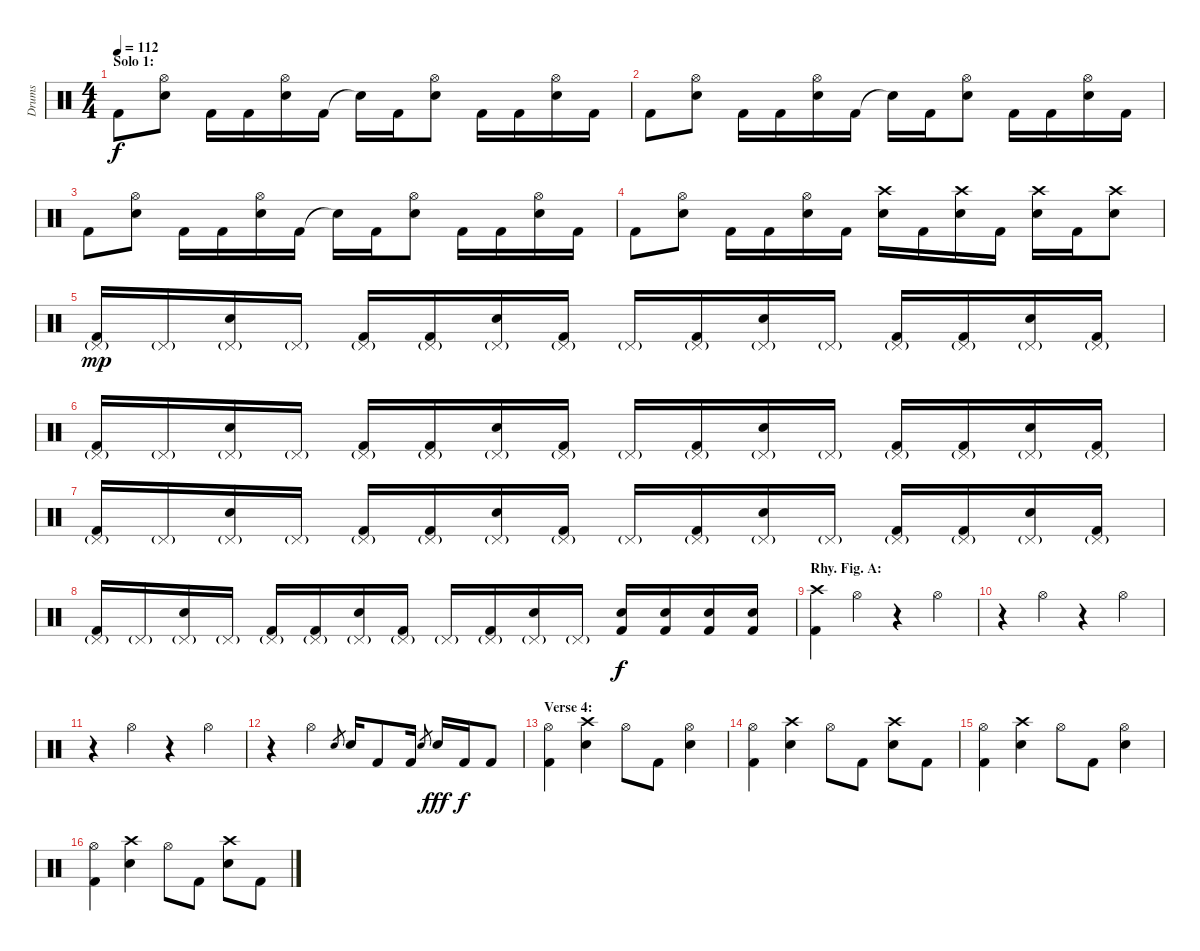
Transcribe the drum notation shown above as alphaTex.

\track ("Drums" "Drums") {instrument percussion}
\staff {score}
\articulation defaults
\ts (4 4)
\section ("" "Solo 1:")
\tempo 112
\clef neutral
\ks c "Kick (hit) 2".8{dy f}
("Hi-Hat (open)" "Electric Snare (hit)").8 "Kick (hit) 2".16 "Kick (hit) 2".16 ("Hi-Hat (open)" "Electric Snare (hit)").16 "Kick (hit) 2".16 "Snare (hit)"{t}.16 "Kick (hit) 2".16 ("Hi-Hat (open)" "Electric Snare (hit)").8 "Kick (hit) 2".16 "Kick (hit) 2".16 ("Hi-Hat (open)" "Electric Snare (hit)").16 "Kick (hit) 2".16 |
"Kick (hit) 2".8 ("Hi-Hat (open)" "Electric Snare (hit)").8 "Kick (hit) 2".16 "Kick (hit) 2".16 ("Hi-Hat (open)" "Electric Snare (hit)").16 "Kick (hit) 2".16 "Snare (hit)"{t}.16 "Kick (hit) 2".16 ("Hi-Hat (open)" "Electric Snare (hit)").8 "Kick (hit) 2".16 "Kick (hit) 2".16 ("Hi-Hat (open)" "Electric Snare (hit)").16 "Kick (hit) 2".16 |
"Kick (hit) 2".8 ("Hi-Hat (open)" "Electric Snare (hit)").8 "Kick (hit) 2".16 "Kick (hit) 2".16 ("Hi-Hat (open)" "Electric Snare (hit)").16 "Kick (hit) 2".16 "Snare (hit)"{t}.16 "Kick (hit) 2".16 ("Hi-Hat (open)" "Electric Snare (hit)").8 "Kick (hit) 2".16 "Kick (hit) 2".16 ("Hi-Hat (open)" "Electric Snare (hit)").16 "Kick (hit) 2".16 |
"Kick (hit) 2".8 ("Hi-Hat (open)" "Electric Snare (hit)").8 "Kick (hit) 2".16 "Kick (hit) 2".16 ("Hi-Hat (open)" "Electric Snare (hit)").16 "Kick (hit) 2".16 ("Crash high (hit)" "Electric Snare (hit)").16 "Kick (hit) 2".16 ("Crash high (hit)" "Electric Snare (hit)").16 "Kick (hit) 2".16 ("Crash high (hit)" "Electric Snare (hit)").16 "Kick (hit) 2".16 ("Crash high (hit)" "Electric Snare (hit)").8 |
("Pedal Hi-Hat (hit)"{g} "Kick (hit) 2").16{dy mp} "Pedal Hi-Hat (hit)"{g}.16 ("Pedal Hi-Hat (hit)"{g} "Electric Snare (hit)").16 "Pedal Hi-Hat (hit)"{g}.16 ("Pedal Hi-Hat (hit)"{g} "Kick (hit) 2").16 ("Pedal Hi-Hat (hit)"{g} "Kick (hit) 2").16 ("Pedal Hi-Hat (hit)"{g} "Electric Snare (hit)").16 ("Pedal Hi-Hat (hit)"{g} "Kick (hit) 2").16 "Pedal Hi-Hat (hit)"{g}.16 ("Pedal Hi-Hat (hit)"{g} "Kick (hit) 2").16 ("Pedal Hi-Hat (hit)"{g} "Electric Snare (hit)").16 "Pedal Hi-Hat (hit)"{g}.16 ("Pedal Hi-Hat (hit)"{g} "Kick (hit) 2").16 ("Pedal Hi-Hat (hit)"{g} "Kick (hit) 2").16 ("Pedal Hi-Hat (hit)"{g} "Electric Snare (hit)").16 ("Pedal Hi-Hat (hit)"{g} "Kick (hit) 2").16 |
("Pedal Hi-Hat (hit)"{g} "Kick (hit) 2").16 "Pedal Hi-Hat (hit)"{g}.16 ("Pedal Hi-Hat (hit)"{g} "Electric Snare (hit)").16 "Pedal Hi-Hat (hit)"{g}.16 ("Pedal Hi-Hat (hit)"{g} "Kick (hit) 2").16 ("Pedal Hi-Hat (hit)"{g} "Kick (hit) 2").16 ("Pedal Hi-Hat (hit)"{g} "Electric Snare (hit)").16 ("Pedal Hi-Hat (hit)"{g} "Kick (hit) 2").16 "Pedal Hi-Hat (hit)"{g}.16 ("Pedal Hi-Hat (hit)"{g} "Kick (hit) 2").16 ("Pedal Hi-Hat (hit)"{g} "Electric Snare (hit)").16 "Pedal Hi-Hat (hit)"{g}.16 ("Pedal Hi-Hat (hit)"{g} "Kick (hit) 2").16 ("Pedal Hi-Hat (hit)"{g} "Kick (hit) 2").16 ("Pedal Hi-Hat (hit)"{g} "Electric Snare (hit)").16 ("Pedal Hi-Hat (hit)"{g} "Kick (hit) 2").16 |
("Pedal Hi-Hat (hit)"{g} "Kick (hit) 2").16 "Pedal Hi-Hat (hit)"{g}.16 ("Pedal Hi-Hat (hit)"{g} "Electric Snare (hit)").16 "Pedal Hi-Hat (hit)"{g}.16 ("Pedal Hi-Hat (hit)"{g} "Kick (hit) 2").16 ("Pedal Hi-Hat (hit)"{g} "Kick (hit) 2").16 ("Pedal Hi-Hat (hit)"{g} "Electric Snare (hit)").16 ("Pedal Hi-Hat (hit)"{g} "Kick (hit) 2").16 "Pedal Hi-Hat (hit)"{g}.16 ("Pedal Hi-Hat (hit)"{g} "Kick (hit) 2").16 ("Pedal Hi-Hat (hit)"{g} "Electric Snare (hit)").16 "Pedal Hi-Hat (hit)"{g}.16 ("Pedal Hi-Hat (hit)"{g} "Kick (hit) 2").16 ("Pedal Hi-Hat (hit)"{g} "Kick (hit) 2").16 ("Pedal Hi-Hat (hit)"{g} "Electric Snare (hit)").16 ("Pedal Hi-Hat (hit)"{g} "Kick (hit) 2").16 |
("Pedal Hi-Hat (hit)"{g} "Kick (hit) 2").16 "Pedal Hi-Hat (hit)"{g}.16 ("Pedal Hi-Hat (hit)"{g} "Electric Snare (hit)").16 "Pedal Hi-Hat (hit)"{g}.16 ("Pedal Hi-Hat (hit)"{g} "Kick (hit) 2").16 ("Pedal Hi-Hat (hit)"{g} "Kick (hit) 2").16 ("Pedal Hi-Hat (hit)"{g} "Electric Snare (hit)").16 ("Pedal Hi-Hat (hit)"{g} "Kick (hit) 2").16 "Pedal Hi-Hat (hit)"{g}.16 ("Pedal Hi-Hat (hit)"{g} "Kick (hit) 2").16 ("Pedal Hi-Hat (hit)"{g} "Electric Snare (hit)").16 "Pedal Hi-Hat (hit)"{g}.16 ("Electric Snare (hit)" "Kick (hit) 2").16{dy f} ("Electric Snare (hit)" "Kick (hit) 2").16 ("Electric Snare (hit)" "Kick (hit) 2").16 ("Electric Snare (hit)" "Kick (hit) 2").16 |
\section ("" "Rhy. Fig. A:")
("Crash high (hit)" "Kick (hit) 2").4 "Hi-Hat (open)".4 r.4 "Hi-Hat (open)".4 |
r.4 "Hi-Hat (open)".4 r.4 "Hi-Hat (open)".4 |
r.4 "Hi-Hat (open)".4 r.4 "Hi-Hat (open)".4 |
r.4 "Hi-Hat (open)".4 "Electric Snare (hit)".8{gr} "Electric Snare (hit)".16 "Kick (hit) 2".8 "Kick (hit) 2".16 "Electric Snare (hit)".8{gr} "Electric Snare (hit)".16{dy fff} "Kick (hit) 2".16{dy f} "Kick (hit) 2".8 |
\section ("" "Verse 4:")
("Hi-Hat (open)" "Kick (hit) 2").4 ("Crash high (hit)" "Electric Snare (hit)").4 "Hi-Hat (open)".8 "Kick (hit) 2".8 ("Hi-Hat (open)" "Electric Snare (hit)").4 |
("Hi-Hat (open)" "Kick (hit) 2").4 ("Crash high (hit)" "Electric Snare (hit)").4 "Hi-Hat (open)".8 "Kick (hit) 2".8 ("Crash high (hit)" "Electric Snare (hit)").8 "Kick (hit) 2".8 |
("Hi-Hat (open)" "Kick (hit) 2").4 ("Crash high (hit)" "Electric Snare (hit)").4 "Hi-Hat (open)".8 "Kick (hit) 2".8 ("Hi-Hat (open)" "Electric Snare (hit)").4 |
("Hi-Hat (open)" "Kick (hit) 2").4 ("Crash high (hit)" "Electric Snare (hit)").4 "Hi-Hat (open)".8 "Kick (hit) 2".8 ("Crash high (hit)" "Electric Snare (hit)").8 "Kick (hit) 2".8
